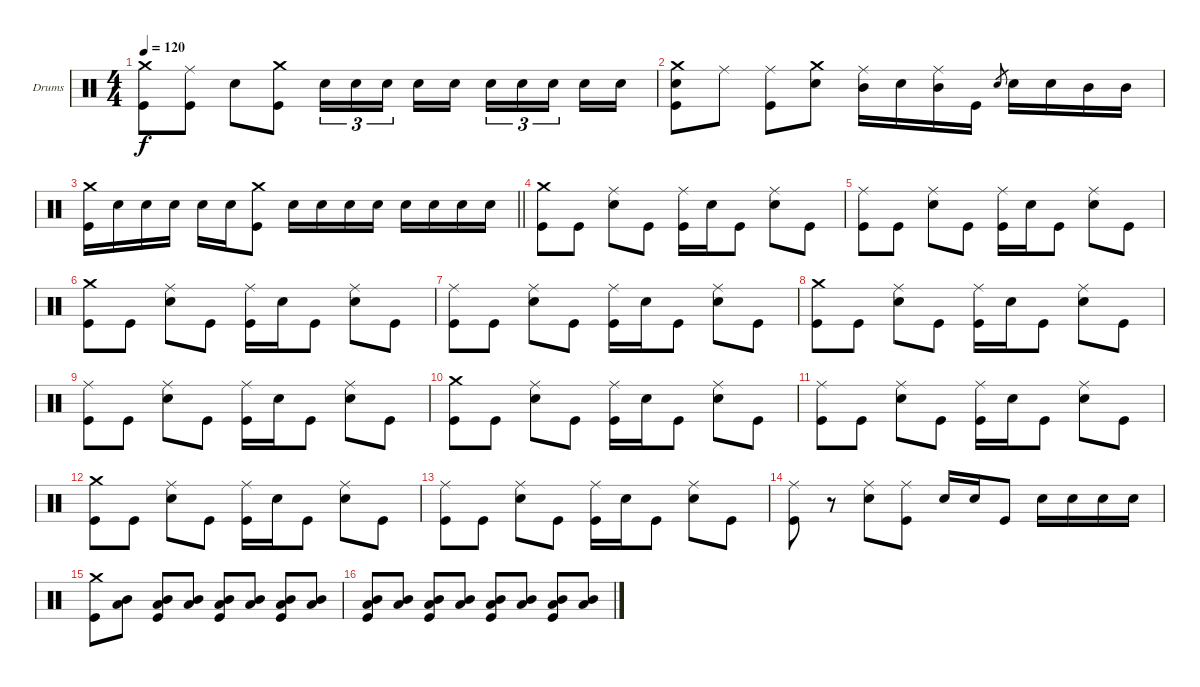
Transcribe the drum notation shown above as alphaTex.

\bracketExtendMode groupsimilarinstruments
\firstSystemTrackNameOrientation horizontal
\otherSystemsTrackNameOrientation horizontal
\track ("Drums" "Drums") {instrument percussion}
\staff {score}
\articulation defaults
\ts (4 4)
\tempo 120
\clef neutral
\ks c
("Kick (hit)" "Crash medium (hit)").8{dy f} ("Kick (hit)" "Ride (middle)").8 "Snare (hit) 2".8 ("Kick (hit)" "Crash medium (hit)").8 "Snare (hit) 2".16{tu (3 2)} "Snare (hit) 2".16{tu (3 2)} "Snare (hit) 2".16{tu (3 2)} "Snare (hit) 2".16 "Snare (hit) 2".16 "Snare (hit) 2".16{tu (3 2)} "Snare (hit) 2".16{tu (3 2)} "Snare (hit) 2".16{tu (3 2)} "Snare (hit) 2".16 "Snare (hit) 2".16 |
("Kick (hit)" "Snare (hit) 2" "Crash medium (hit)").8 "Ride (middle)".8 ("Kick (hit)" "Ride (middle)").8 ("Snare (hit) 2" "Crash medium (hit)").8 ("Ride (middle)" "Mid Tom (hit)").16 "Snare (hit) 2".16 ("Mid Tom (hit)" "Ride (middle)").16 "Kick (hit)".16 "Snare (hit) 2".8{gr} "Snare (hit) 2".16 "Snare (hit) 2".16 "Mid Tom (hit)".16 "Mid Tom (hit)".16 |
\barLineRight lightlight
("Kick (hit)" "Crash medium (hit)").16 "Snare (hit) 2".16 "Snare (hit) 2".16 "Snare (hit) 2".16 "Snare (hit) 2".16 "Snare (hit) 2".16 ("Kick (hit)" "Crash medium (hit)").8 "Snare (hit) 2".16 "Snare (hit) 2".16 "Snare (hit) 2".16 "Snare (hit) 2".16 "Snare (hit) 2".16 "Snare (hit) 2".16 "Snare (hit) 2".16 "Snare (hit) 2".16 |
("Kick (hit)" "Crash medium (hit)").8 "Kick (hit)".8 ("Snare (hit) 2" "Ride (middle)").8 "Kick (hit)".8 ("Kick (hit)" "Ride (middle)").16 "Snare (hit) 2".16 "Kick (hit)".8 ("Snare (hit) 2" "Ride (middle)").8 "Kick (hit)".8 |
("Kick (hit)" "Ride (middle)").8 "Kick (hit)".8 ("Snare (hit) 2" "Ride (middle)").8 "Kick (hit)".8 ("Kick (hit)" "Ride (middle)").16 "Snare (hit) 2".16 "Kick (hit)".8 ("Snare (hit) 2" "Ride (middle)").8 "Kick (hit)".8 |
("Kick (hit)" "Crash medium (hit)").8 "Kick (hit)".8 ("Snare (hit) 2" "Ride (middle)").8 "Kick (hit)".8 ("Kick (hit)" "Ride (middle)").16 "Snare (hit) 2".16 "Kick (hit)".8 ("Snare (hit) 2" "Ride (middle)").8 "Kick (hit)".8 |
("Kick (hit)" "Ride (middle)").8 "Kick (hit)".8 ("Snare (hit) 2" "Ride (middle)").8 "Kick (hit)".8 ("Kick (hit)" "Ride (middle)").16 "Snare (hit) 2".16 "Kick (hit)".8 ("Snare (hit) 2" "Ride (middle)").8 "Kick (hit)".8 |
("Kick (hit)" "Crash medium (hit)").8 "Kick (hit)".8 ("Snare (hit) 2" "Ride (middle)").8 "Kick (hit)".8 ("Kick (hit)" "Ride (middle)").16 "Snare (hit) 2".16 "Kick (hit)".8 ("Snare (hit) 2" "Ride (middle)").8 "Kick (hit)".8 |
("Kick (hit)" "Ride (middle)").8 "Kick (hit)".8 ("Snare (hit) 2" "Ride (middle)").8 "Kick (hit)".8 ("Kick (hit)" "Ride (middle)").16 "Snare (hit) 2".16 "Kick (hit)".8 ("Snare (hit) 2" "Ride (middle)").8 "Kick (hit)".8 |
("Kick (hit)" "Crash medium (hit)").8 "Kick (hit)".8 ("Snare (hit) 2" "Ride (middle)").8 "Kick (hit)".8 ("Kick (hit)" "Ride (middle)").16 "Snare (hit) 2".16 "Kick (hit)".8 ("Snare (hit) 2" "Ride (middle)").8 "Kick (hit)".8 |
("Kick (hit)" "Ride (middle)").8 "Kick (hit)".8 ("Snare (hit) 2" "Ride (middle)").8 "Kick (hit)".8 ("Kick (hit)" "Ride (middle)").16 "Snare (hit) 2".16 "Kick (hit)".8 ("Snare (hit) 2" "Ride (middle)").8 "Kick (hit)".8 |
("Kick (hit)" "Crash medium (hit)").8 "Kick (hit)".8 ("Snare (hit) 2" "Ride (middle)").8 "Kick (hit)".8 ("Kick (hit)" "Ride (middle)").16 "Snare (hit) 2".16 "Kick (hit)".8 ("Snare (hit) 2" "Ride (middle)").8 "Kick (hit)".8 |
("Kick (hit)" "Ride (middle)").8 "Kick (hit)".8 ("Snare (hit) 2" "Ride (middle)").8 "Kick (hit)".8 ("Kick (hit)" "Ride (middle)").16 "Snare (hit) 2".16 "Kick (hit)".8 ("Snare (hit) 2" "Ride (middle)").8 "Kick (hit)".8 |
("Kick (hit)" "Ride (middle)").8 r.8 ("Snare (hit) 2" "Ride (middle)").8 ("Kick (hit)" "Ride (middle)").8 "Snare (hit) 2".16 "Snare (hit) 2".16 "Kick (hit)".8 "Snare (hit) 2".16 "Snare (hit) 2".16 "Snare (hit) 2".16 "Snare (hit) 2".16 |
("Kick (hit)" "Crash medium (hit)").8 ("Low Tom (hit)" "Mid Tom (hit)").8 ("Kick (hit)" "Low Tom (hit)" "Mid Tom (hit)").8 ("Low Tom (hit)" "Mid Tom (hit)").8 ("Kick (hit)" "Low Tom (hit)" "Mid Tom (hit)").8 ("Low Tom (hit)" "Mid Tom (hit)").8 ("Kick (hit)" "Low Tom (hit)" "Mid Tom (hit)").8 ("Low Tom (hit)" "Mid Tom (hit)").8 |
("Kick (hit)" "Low Tom (hit)" "Mid Tom (hit)").8 ("Low Tom (hit)" "Mid Tom (hit)").8 ("Kick (hit)" "Low Tom (hit)" "Mid Tom (hit)").8 ("Low Tom (hit)" "Mid Tom (hit)").8 ("Kick (hit)" "Low Tom (hit)" "Mid Tom (hit)").8 ("Low Tom (hit)" "Mid Tom (hit)").8 ("Kick (hit)" "Low Tom (hit)" "Mid Tom (hit)").8 ("Low Tom (hit)" "Mid Tom (hit)").8
